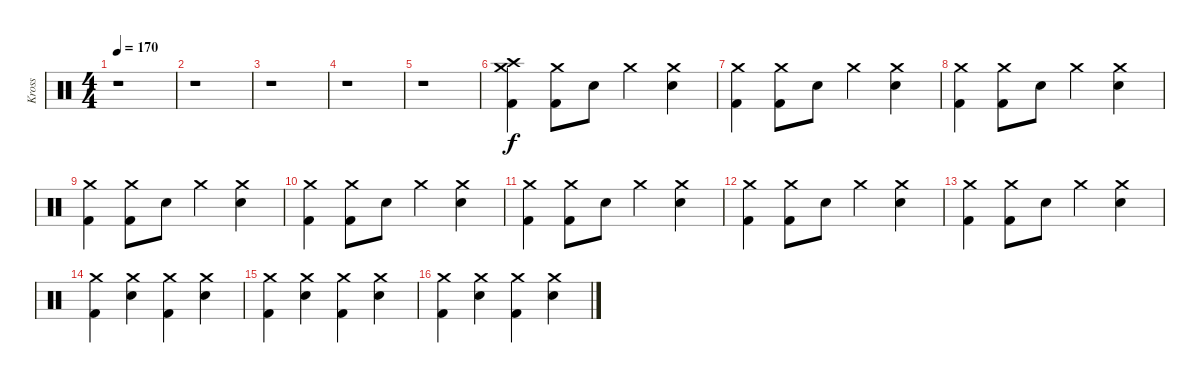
\track ("Kross" "Kross") {instrument percussion}
\staff {score}
\articulation defaults
\ts (4 4)
\tempo 170
\clef neutral
\ks c
r.1{dy mf} |
r.1 |
r.1 |
r.1 |
r.1 |
("Crash medium (hit)" "Crash high (hit)" "Kick (hit) 2").4{dy f} ("Crash medium (hit)" "Kick (hit) 2").8 "Electric Snare (hit)".8 "Crash medium (hit)".4 ("Crash medium (hit)" "Electric Snare (hit)").4 |
("Crash medium (hit)" "Kick (hit) 2").4 ("Crash medium (hit)" "Kick (hit) 2").8 "Electric Snare (hit)".8 "Crash medium (hit)".4 ("Crash medium (hit)" "Electric Snare (hit)").4 |
("Crash medium (hit)" "Kick (hit) 2").4 ("Crash medium (hit)" "Kick (hit) 2").8 "Electric Snare (hit)".8 "Crash medium (hit)".4 ("Crash medium (hit)" "Electric Snare (hit)").4 |
("Crash medium (hit)" "Kick (hit) 2").4 ("Crash medium (hit)" "Kick (hit) 2").8 "Electric Snare (hit)".8 "Crash medium (hit)".4 ("Crash medium (hit)" "Electric Snare (hit)").4 |
("Crash medium (hit)" "Kick (hit) 2").4 ("Crash medium (hit)" "Kick (hit) 2").8 "Electric Snare (hit)".8 "Crash medium (hit)".4 ("Crash medium (hit)" "Electric Snare (hit)").4 |
("Crash medium (hit)" "Kick (hit) 2").4 ("Crash medium (hit)" "Kick (hit) 2").8 "Electric Snare (hit)".8 "Crash medium (hit)".4 ("Crash medium (hit)" "Electric Snare (hit)").4 |
("Crash medium (hit)" "Kick (hit) 2").4 ("Crash medium (hit)" "Kick (hit) 2").8 "Electric Snare (hit)".8 "Crash medium (hit)".4 ("Crash medium (hit)" "Electric Snare (hit)").4 |
("Crash medium (hit)" "Kick (hit) 2").4 ("Crash medium (hit)" "Kick (hit) 2").8 "Electric Snare (hit)".8 "Crash medium (hit)".4 ("Crash medium (hit)" "Electric Snare (hit)").4 |
("Crash medium (hit)" "Kick (hit) 2").4 ("Crash medium (hit)" "Electric Snare (hit)").4 ("Crash medium (hit)" "Kick (hit) 2").4 ("Crash medium (hit)" "Electric Snare (hit)").4 |
("Crash medium (hit)" "Kick (hit) 2").4 ("Crash medium (hit)" "Electric Snare (hit)").4 ("Crash medium (hit)" "Kick (hit) 2").4 ("Crash medium (hit)" "Electric Snare (hit)").4 |
("Crash medium (hit)" "Kick (hit) 2").4 ("Crash medium (hit)" "Electric Snare (hit)").4 ("Crash medium (hit)" "Kick (hit) 2").4 ("Crash medium (hit)" "Electric Snare (hit)").4
